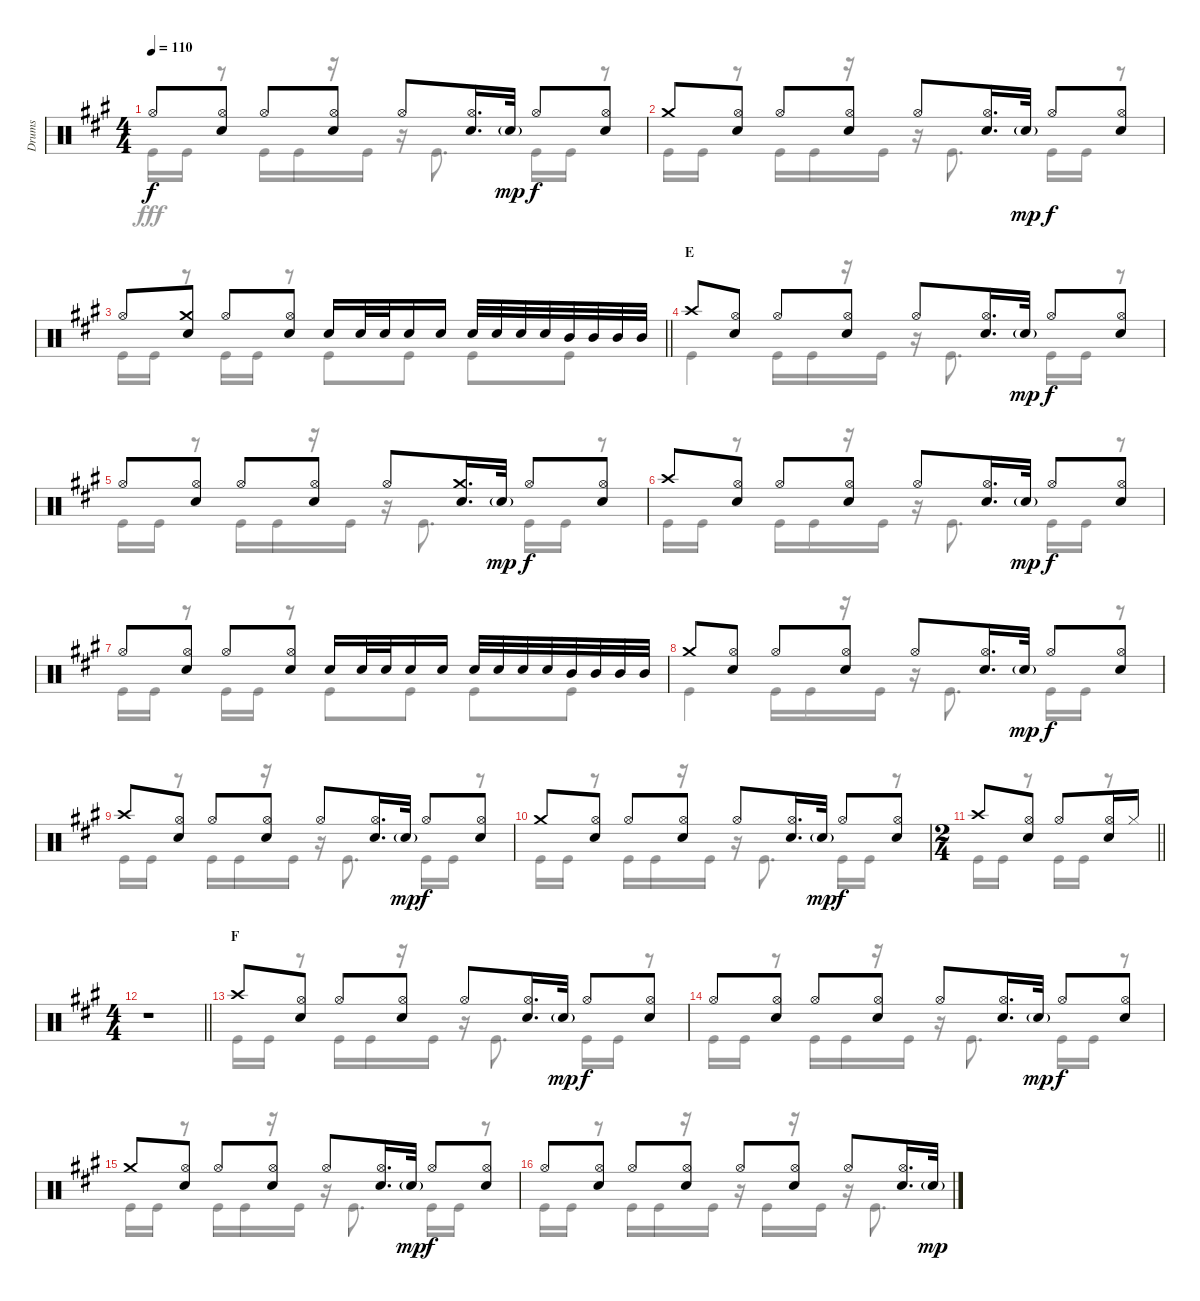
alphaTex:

\track ("Drums" "Drums") {instrument percussion}
\staff {score}
\articulation defaults
\voice
\ts (4 4)
\tempo 110
\clef neutral
\ks a "Hi-Hat (open)".8{dy f}
("Hi-Hat (open)" "Snare (hit) 2").8 "Hi-Hat (open)".8 ("Hi-Hat (open)" "Snare (hit) 2").8 "Hi-Hat (open)".8 ("Hi-Hat (open)" "Snare (hit) 2").16{d} "Snare (hit) 2"{g}.32{dy mp} "Hi-Hat (open)".8{dy f} ("Hi-Hat (open)" "Snare (hit) 2").8 |
"Crash medium (hit)".8 ("Hi-Hat (open)" "Snare (hit) 2").8 "Hi-Hat (open)".8 ("Hi-Hat (open)" "Snare (hit) 2").8 "Hi-Hat (open)".8 ("Hi-Hat (open)" "Snare (hit) 2").16{d} "Snare (hit) 2"{g}.32{dy mp} "Hi-Hat (open)".8{dy f} ("Hi-Hat (open)" "Snare (hit) 2").8 |
\barLineRight lightlight "Hi-Hat (open)".8
("Crash medium (hit)" "Snare (hit) 2").8 "Hi-Hat (open)".8 ("Hi-Hat (open)" "Snare (hit) 2").8 "Snare (hit) 2".16 "Snare (hit) 2".32 "Snare (hit) 2".32 "Snare (hit) 2".16 "Snare (hit) 2".16 "Snare (hit) 2".32 "Snare (hit) 2".32 "Snare (hit) 2".32 "Snare (hit) 2".32 "Mid Tom (hit)".32 "Mid Tom (hit)".32 "Mid Tom (hit)".32 "Mid Tom (hit)".32 |
\section ("" "E")
"Crash high (hit)".8 ("Hi-Hat (open)" "Snare (hit) 2").8 "Hi-Hat (open)".8 ("Hi-Hat (open)" "Snare (hit) 2").8 "Hi-Hat (open)".8 ("Hi-Hat (open)" "Snare (hit) 2").16{d} "Snare (hit) 2"{g}.32{dy mp} "Hi-Hat (open)".8{dy f} ("Hi-Hat (open)" "Snare (hit) 2").8 |
"Hi-Hat (open)".8 ("Hi-Hat (open)" "Snare (hit) 2").8 "Hi-Hat (open)".8 ("Hi-Hat (open)" "Snare (hit) 2").8 "Hi-Hat (open)".8 ("Crash medium (hit)" "Snare (hit) 2").16{d} "Snare (hit) 2"{g}.32{dy mp} "Hi-Hat (open)".8{dy f} ("Hi-Hat (open)" "Snare (hit) 2").8 |
"Crash high (hit)".8 ("Hi-Hat (open)" "Snare (hit) 2").8 "Hi-Hat (open)".8 ("Hi-Hat (open)" "Snare (hit) 2").8 "Hi-Hat (open)".8 ("Hi-Hat (open)" "Snare (hit) 2").16{d} "Snare (hit) 2"{g}.32{dy mp} "Hi-Hat (open)".8{dy f} ("Hi-Hat (open)" "Snare (hit) 2").8 |
"Hi-Hat (open)".8 ("Hi-Hat (open)" "Snare (hit) 2").8 "Hi-Hat (open)".8 ("Hi-Hat (open)" "Snare (hit) 2").8 "Snare (hit) 2".16 "Snare (hit) 2".32 "Snare (hit) 2".32 "Snare (hit) 2".16 "Snare (hit) 2".16 "Snare (hit) 2".32 "Snare (hit) 2".32 "Snare (hit) 2".32 "Snare (hit) 2".32 "Mid Tom (hit)".32 "Mid Tom (hit)".32 "Mid Tom (hit)".32 "Mid Tom (hit)".32 |
"Crash medium (hit)".8 ("Hi-Hat (open)" "Snare (hit) 2").8 "Hi-Hat (open)".8 ("Hi-Hat (open)" "Snare (hit) 2").8 "Hi-Hat (open)".8 ("Hi-Hat (open)" "Snare (hit) 2").16{d} "Snare (hit) 2"{g}.32{dy mp} "Hi-Hat (open)".8{dy f} ("Hi-Hat (open)" "Snare (hit) 2").8 |
"Crash high (hit)".8 ("Hi-Hat (open)" "Snare (hit) 2").8 "Hi-Hat (open)".8 ("Hi-Hat (open)" "Snare (hit) 2").8 "Hi-Hat (open)".8 ("Hi-Hat (open)" "Snare (hit) 2").16{d} "Snare (hit) 2"{g}.32{dy mp} "Hi-Hat (open)".8{dy f} ("Hi-Hat (open)" "Snare (hit) 2").8 |
"Crash medium (hit)".8 ("Hi-Hat (open)" "Snare (hit) 2").8 "Hi-Hat (open)".8 ("Hi-Hat (open)" "Snare (hit) 2").8 "Hi-Hat (open)".8 ("Hi-Hat (open)" "Snare (hit) 2").16{d} "Snare (hit) 2"{g}.32{dy mp} "Hi-Hat (open)".8{dy f} ("Hi-Hat (open)" "Snare (hit) 2").8 |
\ts (2 4)
\barLineRight lightlight "Crash high (hit)".8
("Hi-Hat (open)" "Snare (hit) 2").8 "Hi-Hat (open)".8 ("Hi-Hat (open)" "Snare (hit) 2").16 "Hi-Hat (closed)".16 |
\ts (4 4)
\barLineRight lightlight
r.1 |
\section ("" "F")
"Crash high (hit)".8 ("Hi-Hat (open)" "Snare (hit) 2").8 "Hi-Hat (open)".8 ("Hi-Hat (open)" "Snare (hit) 2").8 "Hi-Hat (open)".8 ("Hi-Hat (open)" "Snare (hit) 2").16{d} "Snare (hit) 2"{g}.32{dy mp} "Hi-Hat (open)".8{dy f} ("Hi-Hat (open)" "Snare (hit) 2").8 |
"Hi-Hat (open)".8 ("Hi-Hat (open)" "Snare (hit) 2").8 "Hi-Hat (open)".8 ("Hi-Hat (open)" "Snare (hit) 2").8 "Hi-Hat (open)".8 ("Hi-Hat (open)" "Snare (hit) 2").16{d} "Snare (hit) 2"{g}.32{dy mp} "Hi-Hat (open)".8{dy f} ("Hi-Hat (open)" "Snare (hit) 2").8 |
"Crash medium (hit)".8 ("Hi-Hat (open)" "Snare (hit) 2").8 "Hi-Hat (open)".8 ("Hi-Hat (open)" "Snare (hit) 2").8 "Hi-Hat (open)".8 ("Hi-Hat (open)" "Snare (hit) 2").16{d} "Snare (hit) 2"{g}.32{dy mp} "Hi-Hat (open)".8{dy f} ("Hi-Hat (open)" "Snare (hit) 2").8 |
"Hi-Hat (open)".8 ("Hi-Hat (open)" "Snare (hit) 2").8 "Hi-Hat (open)".8 ("Hi-Hat (open)" "Snare (hit) 2").8 "Hi-Hat (open)".8 ("Hi-Hat (open)" "Snare (hit) 2").8 "Hi-Hat (open)".8 ("Hi-Hat (open)" "Snare (hit) 2").16{d} "Snare (hit) 2"{g}.32{dy mp}
\voice
\clef neutral
\ottava regular
\simile none
\ks a "Kick (hit)".16{dy fff} "Kick (hit)".16
r.8 "Kick (hit)".16 "Kick (hit)".16 r.16 "Kick (hit)".16 r.16 "Kick (hit)".8{d} "Kick (hit)".16 "Kick (hit)".16 r.8 |
"Kick (hit)".16 "Kick (hit)".16 r.8 "Kick (hit)".16 "Kick (hit)".16 r.16 "Kick (hit)".16 r.16 "Kick (hit)".8{d} "Kick (hit)".16 "Kick (hit)".16 r.8 |
\barLineRight lightlight "Kick (hit)".16 "Kick (hit)".16
r.8 "Kick (hit)".16 "Kick (hit)".16 r.8 "Kick (hit)".8 "Kick (hit)".8 "Kick (hit)".8 "Kick (hit)".8 |
"Kick (hit)".4 "Kick (hit)".16 "Kick (hit)".16 r.16 "Kick (hit)".16 r.16 "Kick (hit)".8{d} "Kick (hit)".16 "Kick (hit)".16 r.8 |
"Kick (hit)".16 "Kick (hit)".16 r.8 "Kick (hit)".16 "Kick (hit)".16 r.16 "Kick (hit)".16 r.16 "Kick (hit)".8{d} "Kick (hit)".16 "Kick (hit)".16 r.8 |
"Kick (hit)".16 "Kick (hit)".16 r.8 "Kick (hit)".16 "Kick (hit)".16 r.16 "Kick (hit)".16 r.16 "Kick (hit)".8{d} "Kick (hit)".16 "Kick (hit)".16 r.8 |
"Kick (hit)".16 "Kick (hit)".16 r.8 "Kick (hit)".16 "Kick (hit)".16 r.8 "Kick (hit)".8 "Kick (hit)".8 "Kick (hit)".8 "Kick (hit)".8 |
"Kick (hit)".4 "Kick (hit)".16 "Kick (hit)".16 r.16 "Kick (hit)".16 r.16 "Kick (hit)".8{d} "Kick (hit)".16 "Kick (hit)".16 r.8 |
"Kick (hit)".16 "Kick (hit)".16 r.8 "Kick (hit)".16 "Kick (hit)".16 r.16 "Kick (hit)".16 r.16 "Kick (hit)".8{d} "Kick (hit)".16 "Kick (hit)".16 r.8 |
"Kick (hit)".16 "Kick (hit)".16 r.8 "Kick (hit)".16 "Kick (hit)".16 r.16 "Kick (hit)".16 r.16 "Kick (hit)".8{d} "Kick (hit)".16 "Kick (hit)".16 r.8 |
\barLineRight lightlight "Kick (hit)".16 "Kick (hit)".16
r.8 "Kick (hit)".16 "Kick (hit)".16 r.8 |
\barLineRight lightlight
r.1 |
"Kick (hit)".16 "Kick (hit)".16 r.8 "Kick (hit)".16 "Kick (hit)".16 r.16 "Kick (hit)".16 r.16 "Kick (hit)".8{d} "Kick (hit)".16 "Kick (hit)".16 r.8 |
"Kick (hit)".16 "Kick (hit)".16 r.8 "Kick (hit)".16 "Kick (hit)".16 r.16 "Kick (hit)".16 r.16 "Kick (hit)".8{d} "Kick (hit)".16 "Kick (hit)".16 r.8 |
"Kick (hit)".16 "Kick (hit)".16 r.8 "Kick (hit)".16 "Kick (hit)".16 r.16 "Kick (hit)".16 r.16 "Kick (hit)".8{d} "Kick (hit)".16 "Kick (hit)".16 r.8 |
"Kick (hit)".16 "Kick (hit)".16 r.8 "Kick (hit)".16 "Kick (hit)".16 r.16 "Kick (hit)".16 r.16 "Kick (hit)".16 r.16 "Kick (hit)".16 r.16 "Kick (hit)".8{d}
